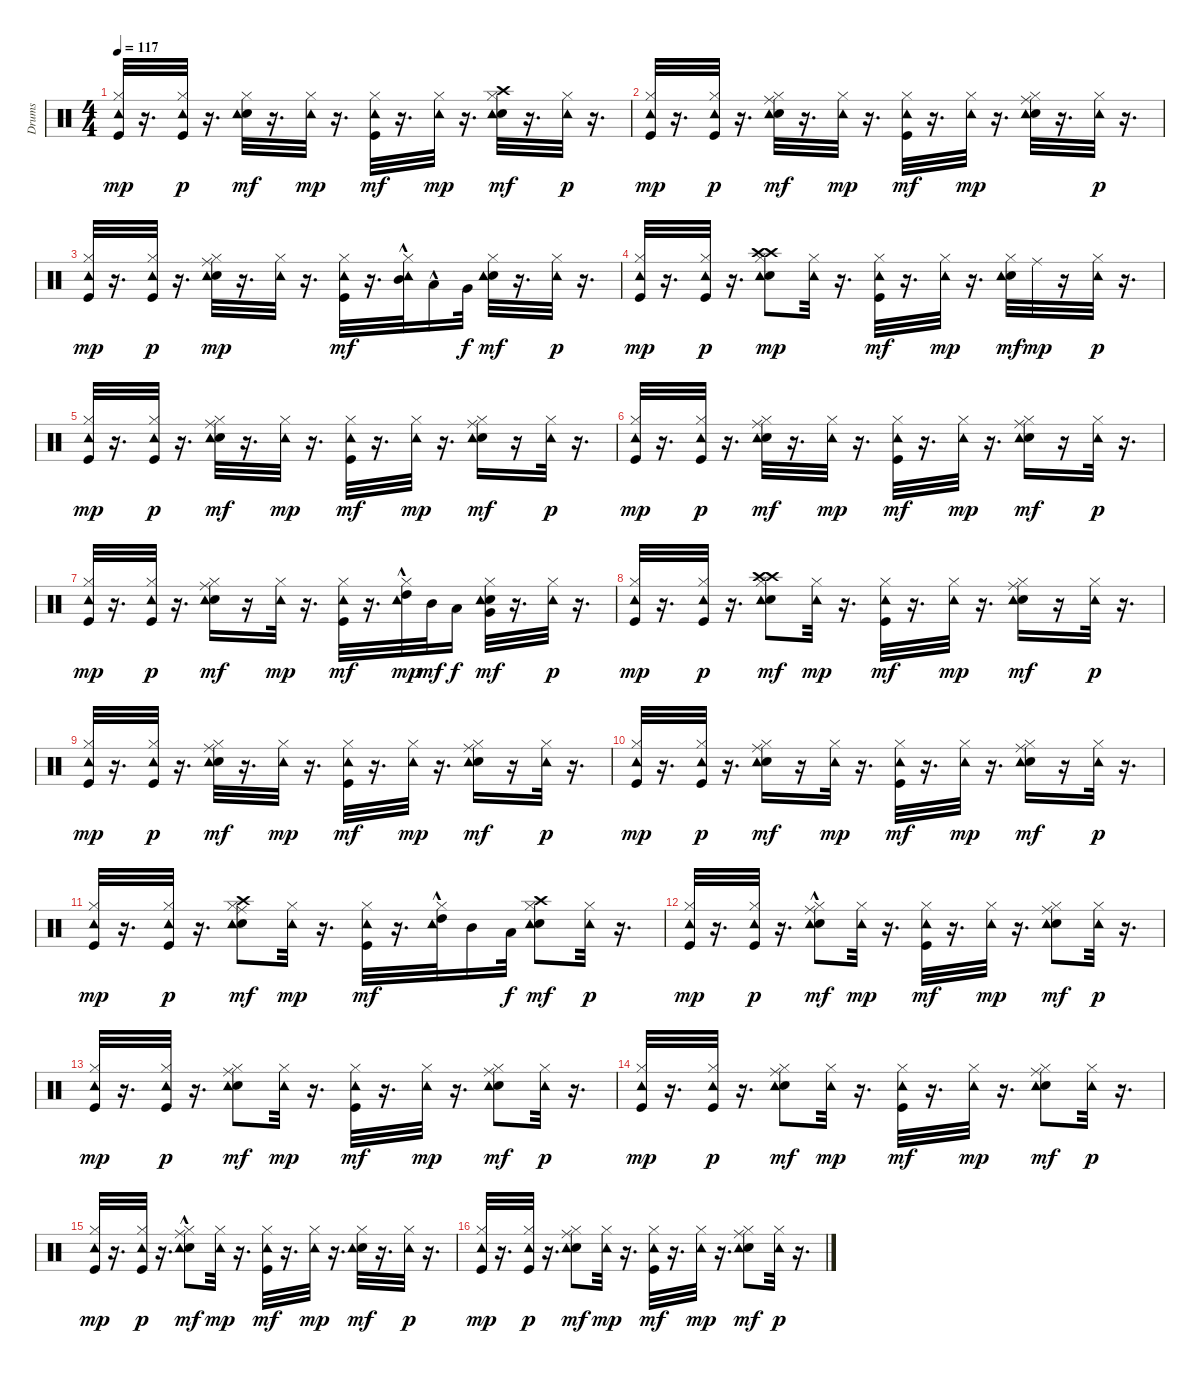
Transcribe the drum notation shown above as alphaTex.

\track ("Drums" "Drums") {instrument percussion}
\staff {score}
\articulation defaults
\ts (4 4)
\tempo 117
\clef neutral
\ks c
("Kick (hit)" "Hi-Hat (closed)" "Tambourine (hit)").32{dy mp} r.16{d} ("Kick (hit)" "Hi-Hat (closed)" "Tambourine (hit)").32{dy p} r.16{d} ("Electric Snare (hit)" "Hi-Hat (closed)" "Tambourine (hit)").32{dy mf} r.16{d} ("Hi-Hat (closed)" "Tambourine (hit)").32{dy mp} r.16{d} ("Kick (hit)" "Hi-Hat (closed)" "Tambourine (hit)").32{dy mf} r.16{d} ("Hi-Hat (closed)" "Tambourine (hit)").32{dy mp} r.16{d} ("Electric Snare (hit)" "Hi-Hat (closed)" "Tambourine (hit)" "Crash high (hit)").32{dy mf} r.16{d} ("Hi-Hat (closed)" "Tambourine (hit)").32{dy p} r.16{d} |
("Kick (hit)" "Hi-Hat (closed)" "Tambourine (hit)").32{dy mp} r.16{d} ("Kick (hit)" "Hi-Hat (closed)" "Tambourine (hit)").32{dy p} r.16{d} ("Electric Snare (hit)" "Hi-Hat (closed)" "Tambourine (hit)" "Ride (middle)").32{dy mf} r.16{d} ("Hi-Hat (closed)" "Tambourine (hit)").32{dy mp} r.16{d} ("Kick (hit)" "Hi-Hat (closed)" "Tambourine (hit)").32{dy mf} r.16{d} ("Hi-Hat (closed)" "Tambourine (hit)").32{dy mp} r.16{d} ("Electric Snare (hit)" "Hi-Hat (closed)" "Tambourine (hit)" "Ride (middle)").32 r.16{d} ("Hi-Hat (closed)" "Tambourine (hit)").32{dy p} r.16{d} |
("Kick (hit)" "Hi-Hat (closed)" "Tambourine (hit)").32{dy mp} r.16{d} ("Kick (hit)" "Hi-Hat (closed)" "Tambourine (hit)").32{dy p} r.16{d} ("Electric Snare (hit)" "Hi-Hat (closed)" "Tambourine (hit)" "Ride (middle)").32{dy mp} r.16{d} ("Hi-Hat (closed)" "Tambourine (hit)").32 r.16{d} ("Kick (hit)" "Hi-Hat (closed)" "Tambourine (hit)").32{dy mf} r.16{d} ("Hi-Hat (closed)" "Tambourine (hit)" "Mid Tom (hit)"{hac}).32 "Low Tom (hit)"{hac}.16 "Very Low Tom (hit)".32{dy f} ("Electric Snare (hit)" "Hi-Hat (closed)" "Tambourine (hit)").32{dy mf} r.16{d} ("Hi-Hat (closed)" "Tambourine (hit)").32{dy p} r.16{d} |
("Kick (hit)" "Hi-Hat (closed)" "Tambourine (hit)").32{dy mp} r.16{d} ("Kick (hit)" "Hi-Hat (closed)" "Tambourine (hit)").32{dy p} r.16{d} ("Electric Snare (hit)" "Hi-Hat (closed)" "Tambourine (hit)" "Crash high (hit)" "Crash high (hit)").8{dy mp} ("Hi-Hat (closed)" "Tambourine (hit)").32 r.16{d} ("Kick (hit)" "Hi-Hat (closed)" "Tambourine (hit)").32{dy mf} r.16{d} ("Hi-Hat (closed)" "Tambourine (hit)").32{dy mp} r.16{d} ("Electric Snare (hit)" "Hi-Hat (closed)" "Tambourine (hit)").32{dy mf} "Ride (middle)".32{dy mp} r.16 ("Hi-Hat (closed)" "Tambourine (hit)").32{dy p} r.16{d} |
("Kick (hit)" "Hi-Hat (closed)" "Tambourine (hit)").32{dy mp} r.16{d} ("Kick (hit)" "Hi-Hat (closed)" "Tambourine (hit)").32{dy p} r.16{d} ("Electric Snare (hit)" "Hi-Hat (closed)" "Tambourine (hit)" "Ride (middle)").32{dy mf} r.16{d} ("Hi-Hat (closed)" "Tambourine (hit)").32{dy mp} r.16{d} ("Kick (hit)" "Hi-Hat (closed)" "Tambourine (hit)").32{dy mf} r.16{d} ("Hi-Hat (closed)" "Tambourine (hit)").32{dy mp} r.16{d} ("Electric Snare (hit)" "Hi-Hat (closed)" "Tambourine (hit)" "Ride (middle)").16{dy mf} r.16 ("Hi-Hat (closed)" "Tambourine (hit)").32{dy p} r.16{d} |
("Kick (hit)" "Hi-Hat (closed)" "Tambourine (hit)").32{dy mp} r.16{d} ("Kick (hit)" "Hi-Hat (closed)" "Tambourine (hit)").32{dy p} r.16{d} ("Electric Snare (hit)" "Hi-Hat (closed)" "Tambourine (hit)" "Ride (middle)").32{dy mf} r.16{d} ("Hi-Hat (closed)" "Tambourine (hit)").32{dy mp} r.16{d} ("Kick (hit)" "Hi-Hat (closed)" "Tambourine (hit)").32{dy mf} r.16{d} ("Hi-Hat (closed)" "Tambourine (hit)").32{dy mp} r.16{d} ("Electric Snare (hit)" "Hi-Hat (closed)" "Tambourine (hit)" "Ride (middle)").16{dy mf} r.16 ("Hi-Hat (closed)" "Tambourine (hit)").32{dy p} r.16{d} |
("Kick (hit)" "Hi-Hat (closed)" "Tambourine (hit)").32{dy mp} r.16{d} ("Kick (hit)" "Hi-Hat (closed)" "Tambourine (hit)").32{dy p} r.16{d} ("Electric Snare (hit)" "Hi-Hat (closed)" "Tambourine (hit)" "Ride (middle)").16{dy mf} r.16 ("Hi-Hat (closed)" "Tambourine (hit)").32{dy mp} r.16{d} ("Kick (hit)" "Hi-Hat (closed)" "Tambourine (hit)").32{dy mf} r.16{d} ("Hi-Hat (closed)" "Tambourine (hit)" "High Tom (hit)"{hac}).32{dy mp} "Mid Tom (hit)".32{dy mf} "Low Tom (hit)".16{dy f} ("Very Low Tom (hit)" "Electric Snare (hit)" "Hi-Hat (closed)" "Tambourine (hit)").32{dy mf} r.16{d} ("Hi-Hat (closed)" "Tambourine (hit)").32{dy p} r.16{d} |
("Kick (hit)" "Hi-Hat (closed)" "Tambourine (hit)").32{dy mp} r.16{d} ("Kick (hit)" "Hi-Hat (closed)" "Tambourine (hit)").32{dy p} r.16{d} ("Electric Snare (hit)" "Hi-Hat (closed)" "Tambourine (hit)" "Crash high (hit)" "Crash high (hit)").8{dy mf} ("Hi-Hat (closed)" "Tambourine (hit)").32{dy mp} r.16{d} ("Kick (hit)" "Hi-Hat (closed)" "Tambourine (hit)").32{dy mf} r.16{d} ("Hi-Hat (closed)" "Tambourine (hit)").32{dy mp} r.16{d} ("Electric Snare (hit)" "Hi-Hat (closed)" "Tambourine (hit)" "Ride (middle)").16{dy mf} r.16 ("Hi-Hat (closed)" "Tambourine (hit)").32{dy p} r.16{d} |
("Kick (hit)" "Hi-Hat (closed)" "Tambourine (hit)").32{dy mp} r.16{d} ("Kick (hit)" "Hi-Hat (closed)" "Tambourine (hit)").32{dy p} r.16{d} ("Electric Snare (hit)" "Hi-Hat (closed)" "Tambourine (hit)" "Ride (middle)").32{dy mf} r.16{d} ("Hi-Hat (closed)" "Tambourine (hit)").32{dy mp} r.16{d} ("Kick (hit)" "Hi-Hat (closed)" "Tambourine (hit)").32{dy mf} r.16{d} ("Hi-Hat (closed)" "Tambourine (hit)").32{dy mp} r.16{d} ("Electric Snare (hit)" "Hi-Hat (closed)" "Tambourine (hit)" "Ride (middle)").16{dy mf} r.16 ("Hi-Hat (closed)" "Tambourine (hit)").32{dy p} r.16{d} |
("Kick (hit)" "Hi-Hat (closed)" "Tambourine (hit)").32{dy mp} r.16{d} ("Kick (hit)" "Hi-Hat (closed)" "Tambourine (hit)").32{dy p} r.16{d} ("Electric Snare (hit)" "Hi-Hat (closed)" "Tambourine (hit)" "Ride (middle)").16{dy mf} r.16 ("Hi-Hat (closed)" "Tambourine (hit)").32{dy mp} r.16{d} ("Kick (hit)" "Hi-Hat (closed)" "Tambourine (hit)").32{dy mf} r.16{d} ("Hi-Hat (closed)" "Tambourine (hit)").32{dy mp} r.16{d} ("Electric Snare (hit)" "Hi-Hat (closed)" "Tambourine (hit)" "Ride (middle)").16{dy mf} r.16 ("Hi-Hat (closed)" "Tambourine (hit)").32{dy p} r.16{d} |
("Kick (hit)" "Hi-Hat (closed)" "Tambourine (hit)").32{dy mp} r.16{d} ("Kick (hit)" "Hi-Hat (closed)" "Tambourine (hit)").32{dy p} r.16{d} ("Electric Snare (hit)" "Hi-Hat (closed)" "Tambourine (hit)" "Ride (middle)" "Crash high (hit)").8{dy mf} ("Hi-Hat (closed)" "Tambourine (hit)").32{dy mp} r.16{d} ("Kick (hit)" "Hi-Hat (closed)" "Tambourine (hit)").32{dy mf} r.16{d} ("Hi-Hat (closed)" "Tambourine (hit)" "High Tom (hit)"{hac}).32 "Mid Tom (hit)".16 "Low Tom (hit)".32{dy f} ("Crash high (hit)" "Electric Snare (hit)" "Hi-Hat (closed)" "Tambourine (hit)").8{dy mf} ("Hi-Hat (closed)" "Tambourine (hit)").32{dy p} r.16{d} |
("Kick (hit)" "Hi-Hat (closed)" "Tambourine (hit)").32{dy mp} r.16{d} ("Kick (hit)" "Hi-Hat (closed)" "Tambourine (hit)").32{dy p} r.16{d} ("Electric Snare (hit)" "Hi-Hat (closed)" "Tambourine (hit)" "Ride (middle)"{hac}).8{dy mf} ("Hi-Hat (closed)" "Tambourine (hit)").32{dy mp} r.16{d} ("Kick (hit)" "Hi-Hat (closed)" "Tambourine (hit)").32{dy mf} r.16{d} ("Hi-Hat (closed)" "Tambourine (hit)").32{dy mp} r.16{d} ("Electric Snare (hit)" "Hi-Hat (closed)" "Tambourine (hit)" "Ride (middle)").8{dy mf} ("Hi-Hat (closed)" "Tambourine (hit)").32{dy p} r.16{d} |
("Kick (hit)" "Hi-Hat (closed)" "Tambourine (hit)").32{dy mp} r.16{d} ("Kick (hit)" "Hi-Hat (closed)" "Tambourine (hit)").32{dy p} r.16{d} ("Electric Snare (hit)" "Hi-Hat (closed)" "Tambourine (hit)" "Ride (middle)").8{dy mf} ("Hi-Hat (closed)" "Tambourine (hit)").32{dy mp} r.16{d} ("Kick (hit)" "Hi-Hat (closed)" "Tambourine (hit)").32{dy mf} r.16{d} ("Hi-Hat (closed)" "Tambourine (hit)").32{dy mp} r.16{d} ("Electric Snare (hit)" "Hi-Hat (closed)" "Tambourine (hit)" "Ride (middle)").8{dy mf} ("Hi-Hat (closed)" "Tambourine (hit)").32{dy p} r.16{d} |
("Kick (hit)" "Hi-Hat (closed)" "Tambourine (hit)").32{dy mp} r.16{d} ("Kick (hit)" "Hi-Hat (closed)" "Tambourine (hit)").32{dy p} r.16{d} ("Electric Snare (hit)" "Hi-Hat (closed)" "Tambourine (hit)" "Ride (middle)").8{dy mf} ("Hi-Hat (closed)" "Tambourine (hit)").32{dy mp} r.16{d} ("Kick (hit)" "Hi-Hat (closed)" "Tambourine (hit)").32{dy mf} r.16{d} ("Hi-Hat (closed)" "Tambourine (hit)").32{dy mp} r.16{d} ("Electric Snare (hit)" "Hi-Hat (closed)" "Tambourine (hit)" "Ride (middle)").8{dy mf} ("Hi-Hat (closed)" "Tambourine (hit)").32{dy p} r.16{d} |
("Kick (hit)" "Hi-Hat (closed)" "Tambourine (hit)").32{dy mp} r.16{d} ("Kick (hit)" "Hi-Hat (closed)" "Tambourine (hit)").32{dy p} r.16{d} ("Electric Snare (hit)" "Hi-Hat (closed)" "Tambourine (hit)" "Ride (middle)"{hac}).8{dy mf} ("Hi-Hat (closed)" "Tambourine (hit)").32{dy mp} r.16{d} ("Kick (hit)" "Hi-Hat (closed)" "Tambourine (hit)").32{dy mf} r.16{d} ("Hi-Hat (closed)" "Tambourine (hit)").32{dy mp} r.16{d} ("Electric Snare (hit)" "Hi-Hat (closed)" "Tambourine (hit)").32{dy mf} r.16{d} ("Hi-Hat (closed)" "Tambourine (hit)").32{dy p} r.16{d} |
("Kick (hit)" "Hi-Hat (closed)" "Tambourine (hit)").32{dy mp} r.16{d} ("Kick (hit)" "Hi-Hat (closed)" "Tambourine (hit)").32{dy p} r.16{d} ("Electric Snare (hit)" "Hi-Hat (closed)" "Tambourine (hit)" "Ride (middle)").8{dy mf} ("Hi-Hat (closed)" "Tambourine (hit)").32{dy mp} r.16{d} ("Kick (hit)" "Hi-Hat (closed)" "Tambourine (hit)").32{dy mf} r.16{d} ("Hi-Hat (closed)" "Tambourine (hit)").32{dy mp} r.16{d} ("Electric Snare (hit)" "Hi-Hat (closed)" "Tambourine (hit)" "Ride (middle)").8{dy mf} ("Hi-Hat (closed)" "Tambourine (hit)").32{dy p} r.16{d}
